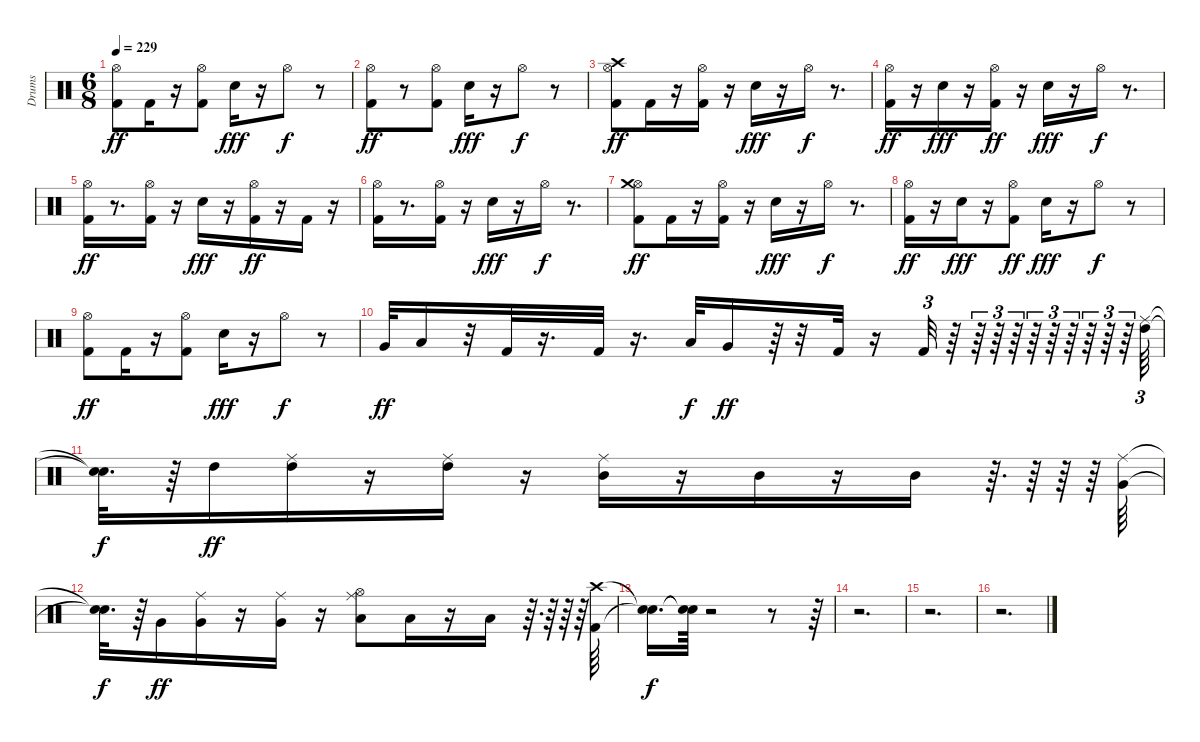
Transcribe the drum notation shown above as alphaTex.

\track ("Drums" "Drums") {instrument percussion}
\staff {score}
\articulation defaults
\ts (6 8)
\tempo 229
\clef neutral
\ks c
("Kick (hit) 2" "Hi-Hat (open)").8{dy ff} "Kick (hit) 2".16 r.16 ("Kick (hit) 2" "Hi-Hat (open)").8 "Snare (hit) 2".16{dy fff} r.16 "Hi-Hat (open)".8{dy f} r.8 |
("Kick (hit) 2" "Hi-Hat (open)").8{dy ff} r.8 ("Kick (hit) 2" "Hi-Hat (open)").8 "Snare (hit) 2".16{dy fff} r.16 "Hi-Hat (open)".8{dy f} r.8 |
("Kick (hit) 2" "Hi-Hat (open)" "Crash high (hit)").8{dy ff} "Kick (hit) 2".16 r.16 ("Kick (hit) 2" "Hi-Hat (open)").16 r.16 "Snare (hit) 2".16{dy fff} r.16 "Hi-Hat (open)".16{dy f} r.8{d} |
("Kick (hit) 2" "Hi-Hat (open)").16{dy ff} r.16 "Snare (hit) 2".16{dy fff} r.16 ("Kick (hit) 2" "Hi-Hat (open)").16{dy ff} r.16 "Snare (hit) 2".16{dy fff} r.16 "Hi-Hat (open)".16{dy f} r.8{d} |
("Kick (hit) 2" "Hi-Hat (open)").16{dy ff} r.8{d} ("Kick (hit) 2" "Hi-Hat (open)").16 r.16 "Snare (hit) 2".16{dy fff} r.16 ("Kick (hit) 2" "Hi-Hat (open)").16{dy ff} r.16 "Kick (hit) 2".16 r.16 |
("Kick (hit) 2" "Hi-Hat (open)").16 r.8{d} ("Kick (hit) 2" "Hi-Hat (open)").16 r.16 "Snare (hit) 2".16{dy fff} r.16 "Hi-Hat (open)".16{dy f} r.8{d} |
("Kick (hit) 2" "Hi-Hat (open)" "Crash medium (hit)").8{dy ff} "Kick (hit) 2".16 r.16 ("Kick (hit) 2" "Hi-Hat (open)").16 r.16 "Snare (hit) 2".16{dy fff} r.16 "Hi-Hat (open)".16{dy f} r.8{d} |
("Kick (hit) 2" "Hi-Hat (open)").16{dy ff} r.16 "Snare (hit) 2".16{dy fff} r.16 ("Kick (hit) 2" "Hi-Hat (open)").8{dy ff} "Snare (hit) 2".16{dy fff} r.16 "Hi-Hat (open)".8{dy f} r.8 |
("Kick (hit) 2" "Hi-Hat (open)").8{dy ff} "Kick (hit) 2".16 r.16 ("Kick (hit) 2" "Hi-Hat (open)").8 "Snare (hit) 2".16{dy fff} r.16 "Hi-Hat (open)".8{dy f} r.8 |
"Very Low Tom (hit)".32{dy ff} "Low Tom (hit)".16 r.32 "Kick (hit) 2".32 r.16{d} "Kick (hit) 2".32 r.16{d} "Low Floor Tom (hit)".32{dy f} "Very Low Tom (hit)".16{dy ff} r.64 r.32 "Kick (hit) 2".32 r.16 "Kick (hit) 2".32{tu (3 2)} r.64 r.64{tu (3 2)} r.64{tu (3 2)} r.64{tu (3 2)} r.64{tu (3 2)} r.64{tu (3 2)} r.64{tu (3 2)} r.64{tu (3 2)} r.64{tu (3 2)} r.64{tu (3 2)} ("Ride (middle)" "High Tom (hit)").64{tu (3 2)} |
("Snare (hit)"{t} "Snare (hit)"{t}).32{d dy f} r.64 "High Tom (hit)".16{dy ff} ("Ride (middle)" "High Tom (hit)").16 r.16 ("Ride (middle)" "High Tom (hit)").16 r.16 ("Ride (middle)" "Mid Tom (hit)").16 r.16 "Mid Tom (hit)".16 r.16 "Mid Tom (hit)".16 r.64{d tu (3 2)} r.64{tu (3 2)} r.64{tu (3 2)} r.64{tu (3 2)} ("Ride (middle)" "Very Low Tom (hit)").64 |
("Snare (hit)"{t} "Snare (hit)"{t}).32{d dy f} r.64 "Very Low Tom (hit)".16{dy ff} ("Ride (middle)" "Very Low Tom (hit)").16 r.16 ("Ride (middle)" "Very Low Tom (hit)").16 r.16 ("Hi-Hat (open)" "Ride (middle)" "Low Floor Tom (hit)").8 "Low Floor Tom (hit)".16 r.16 "Low Floor Tom (hit)".16 r.64{d tu (3 2)} r.64{tu (3 2)} r.64{tu (3 2)} r.64{tu (3 2)} ("Kick (hit) 2" "Crash high (hit)").64 |
("Snare (hit)"{t} "Snare (hit)"{t}).16{d dy f} ("Snare (hit)"{t} "Snare (hit)"{t}).64 r.2 r.8 r.64 |
r.2{d} |
r.2{d} |
r.2{d}
